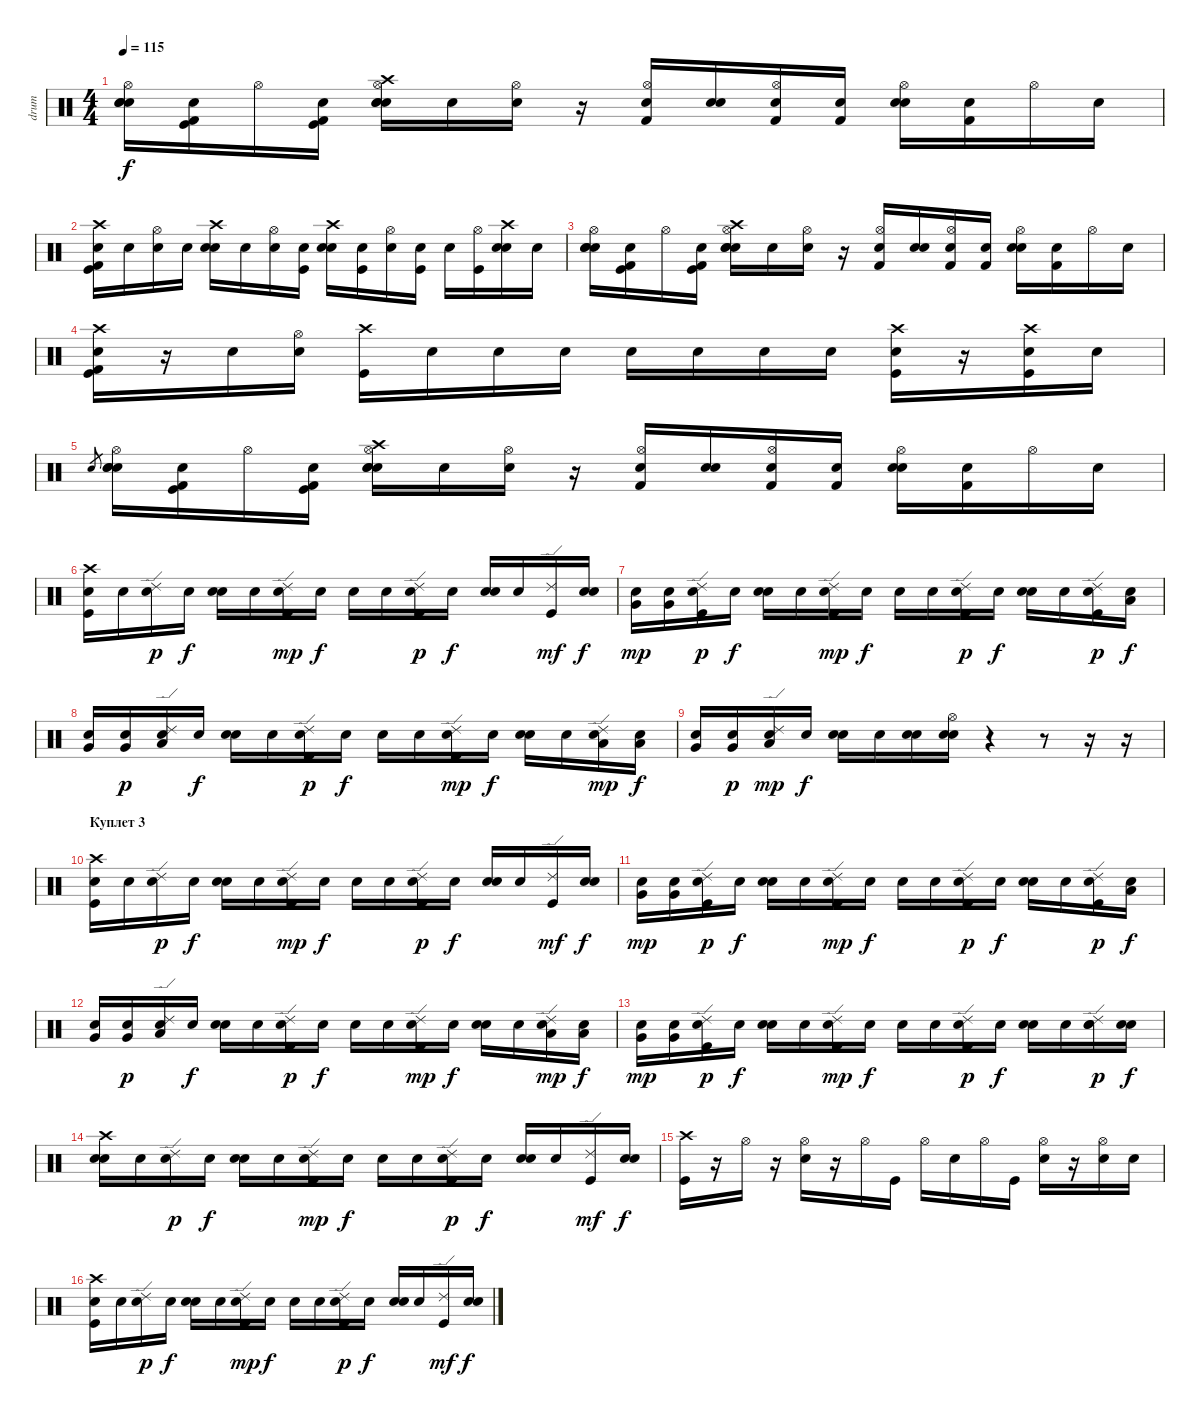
\track ("drum" "drum") {instrument percussion}
\staff {score}
\articulation defaults
\ts (4 4)
\tempo 115
\clef neutral
\ks c
("Snare (hit)"{x} "Hi-Hat (open)" "Snare (hit) 2" "Electric Snare (hit)").16{dy f} ("Snare (hit)"{x} "Kick (hit) 2" "Kick (hit)").16 "Hi-Hat (open)".16 ("Snare (hit)"{x} "Kick (hit) 2" "Kick (hit)").16 ("Snare (hit)"{x} "Hi-Hat (open)" "Snare (hit) 2" "Electric Snare (hit)" "Crash high (hit)").16 "Snare (hit)"{x}.16 ("Snare (hit)"{x} "Hi-Hat (open)").16 r.16 ("Snare (hit)"{x} "Hi-Hat (open)" "Kick (hit) 2").16 ("Snare (hit)"{x} "Snare (hit) 2").16 ("Snare (hit)"{x} "Hi-Hat (open)" "Kick (hit) 2").16 ("Snare (hit)"{x} "Kick (hit) 2").16 ("Snare (hit)"{x} "Hi-Hat (open)" "Snare (hit) 2").16 ("Snare (hit)"{x} "Kick (hit) 2").16 "Hi-Hat (open)".16 "Snare (hit)"{x}.16 |
("Snare (hit)"{x} "Kick (hit)" "Kick (hit) 2" "Crash high (hit)").16 "Snare (hit)"{x}.16 ("Snare (hit)"{x} "Hi-Hat (open)").16 "Snare (hit)"{x}.16 ("Snare (hit)"{x} "Electric Snare (hit)" "Crash high (hit)").16 "Snare (hit)"{x}.16 ("Snare (hit)"{x} "Hi-Hat (open)").16 ("Snare (hit)"{x} "Kick (hit)").16 ("Snare (hit)"{x} "Crash high (hit)" "Electric Snare (hit)").16 ("Snare (hit)"{x} "Kick (hit)").16 ("Snare (hit)"{x} "Hi-Hat (open)").16 ("Snare (hit)"{x} "Kick (hit)").16 "Snare (hit)"{x}.16 ("Hi-Hat (open)" "Kick (hit)").16 ("Snare (hit)"{x} "Crash high (hit)" "Electric Snare (hit)").16 "Snare (hit)"{x}.16 |
("Snare (hit)"{x} "Hi-Hat (open)" "Snare (hit) 2" "Electric Snare (hit)").16 ("Snare (hit)"{x} "Kick (hit) 2" "Kick (hit)").16 "Hi-Hat (open)".16 ("Snare (hit)"{x} "Kick (hit) 2" "Kick (hit)").16 ("Snare (hit)"{x} "Hi-Hat (open)" "Snare (hit) 2" "Electric Snare (hit)" "Crash high (hit)").16 "Snare (hit)"{x}.16 ("Snare (hit)"{x} "Hi-Hat (open)").16 r.16 ("Snare (hit)"{x} "Hi-Hat (open)" "Kick (hit) 2").16 ("Snare (hit)"{x} "Snare (hit) 2").16 ("Snare (hit)"{x} "Hi-Hat (open)" "Kick (hit) 2").16 ("Snare (hit)"{x} "Kick (hit) 2").16 ("Snare (hit)"{x} "Hi-Hat (open)" "Snare (hit) 2").16 ("Snare (hit)"{x} "Kick (hit) 2").16 "Hi-Hat (open)".16 "Snare (hit)"{x}.16 |
("Snare (hit)"{x} "Kick (hit)" "Kick (hit) 2" "Crash high (hit)").16 r.16 "Snare (hit)"{x}.16 ("Hi-Hat (open)" "Electric Snare (hit)").16 ("Kick (hit)" "Crash high (hit)").16 "Snare (hit)"{x}.16 "Electric Snare (hit)".16 "Electric Snare (hit)".16 "Electric Snare (hit)".16 "Electric Snare (hit)".16 "Electric Snare (hit)".16 "Electric Snare (hit)".16 ("Snare (hit)"{x} "Crash high (hit)" "Kick (hit)").16 r.16 ("Snare (hit)"{x} "Crash high (hit)" "Kick (hit)").16 "Snare (hit)"{x}.16 |
"Electric Snare (hit)".8{gr} ("Snare (hit)"{x} "Hi-Hat (open)" "Snare (hit) 2" "Electric Snare (hit)").16 ("Snare (hit)"{x} "Kick (hit) 2" "Kick (hit)").16 "Hi-Hat (open)".16 ("Snare (hit)"{x} "Kick (hit) 2" "Kick (hit)").16 ("Snare (hit)"{x} "Hi-Hat (open)" "Snare (hit) 2" "Electric Snare (hit)" "Crash high (hit)").16 "Snare (hit)"{x}.16 ("Snare (hit)"{x} "Hi-Hat (open)").16 r.16 ("Snare (hit)"{x} "Hi-Hat (open)" "Kick (hit) 2").16 ("Snare (hit)"{x} "Snare (hit) 2").16 ("Snare (hit)"{x} "Hi-Hat (open)" "Kick (hit) 2").16 ("Snare (hit)"{x} "Kick (hit) 2").16 ("Snare (hit)"{x} "Hi-Hat (open)" "Snare (hit) 2").16 ("Snare (hit)"{x} "Kick (hit) 2").16 "Hi-Hat (open)".16 "Snare (hit)"{x}.16 |
("Snare (hit)"{x} "Crash high (hit)" "Kick (hit)").16 "Snare (hit)"{x}.16 ("Snare (hit)"{x} "Ride (edge) 2").16{dy p} "Snare (hit)"{x}.16{dy f} ("Snare (hit)"{x} "Snare (hit) 2").16 "Snare (hit)"{x}.16 ("Snare (hit)"{x} "Ride (edge) 2" "Kick (hit)").16{dy mp} "Snare (hit)"{x}.16{dy f} "Snare (hit)"{x}.16 "Snare (hit)"{x}.16 ("Snare (hit)"{x} "Ride (edge) 2" "Kick (hit)").16{dy p} "Snare (hit)"{x}.16{dy f} ("Snare (hit)"{x} "Snare (hit) 2").16 "Snare (hit)"{x}.16 ("Ride (edge) 2" "Kick (hit)").16{dy mf} ("Snare (hit)"{x} "Snare (hit) 2").16{dy f} |
("Snare (hit)"{x} "Very Low Tom (hit)").16{dy mp} ("Snare (hit)"{x} "Very Low Tom (hit)").16 ("Snare (hit)"{x} "Ride (edge) 2" "Kick (hit)").16{dy p} "Snare (hit)"{x}.16{dy f} ("Snare (hit)"{x} "Snare (hit) 2").16 "Snare (hit)"{x}.16 ("Snare (hit)"{x} "Ride (edge) 2" "Kick (hit)").16{dy mp} "Snare (hit)"{x}.16{dy f} "Snare (hit)"{x}.16 "Snare (hit)"{x}.16 ("Snare (hit)"{x} "Ride (edge) 2" "Kick (hit)").16{dy p} "Snare (hit)"{x}.16{dy f} ("Snare (hit)"{x} "Snare (hit) 2").16 "Snare (hit)"{x}.16 ("Snare (hit)"{x} "Ride (edge) 2" "Kick (hit)").16{dy p} ("Snare (hit)"{x} "Low Tom (hit)").16{dy f} |
("Snare (hit)"{x} "Very Low Tom (hit)").16 ("Snare (hit)"{x} "Very Low Tom (hit)").16{dy p} ("Snare (hit)"{x} "Ride (edge) 2" "Low Floor Tom (hit)").16 "Snare (hit)"{x}.16{dy f} ("Snare (hit)"{x} "Snare (hit) 2").16 "Snare (hit)"{x}.16 ("Snare (hit)"{x} "Ride (edge) 2" "Kick (hit)").16{dy p} "Snare (hit)"{x}.16{dy f} "Snare (hit)"{x}.16 "Snare (hit)"{x}.16 ("Snare (hit)"{x} "Ride (edge) 2" "Kick (hit)").16{dy mp} "Snare (hit)"{x}.16{dy f} ("Snare (hit)"{x} "Snare (hit) 2").16 "Snare (hit)"{x}.16 ("Snare (hit)"{x} "Ride (edge) 2" "Low Tom (hit)").16{dy mp} ("Snare (hit)"{x} "Low Tom (hit)").16{dy f} |
("Snare (hit)"{x} "Very Low Tom (hit)").16 ("Snare (hit)"{x} "Very Low Tom (hit)").16{dy p} ("Snare (hit)"{x} "Ride (edge) 2" "Low Floor Tom (hit)").16{dy mp} "Snare (hit)"{x}.16{dy f} ("Snare (hit)"{x} "Snare (hit) 2").16 "Snare (hit)"{x}.16 ("Snare (hit)"{x} "Snare (hit) 2").16 ("Snare (hit)"{x} "Hi-Hat (open)" "Snare (hit) 2").16 r.4 r.8 r.16 r.16 |
\section ("" "Куплет 3")
("Snare (hit)"{x} "Crash high (hit)" "Kick (hit)").16 "Snare (hit)"{x}.16 ("Snare (hit)"{x} "Ride (edge) 2").16{dy p} "Snare (hit)"{x}.16{dy f} ("Snare (hit)"{x} "Snare (hit) 2").16 "Snare (hit)"{x}.16 ("Snare (hit)"{x} "Ride (edge) 2" "Kick (hit)").16{dy mp} "Snare (hit)"{x}.16{dy f} "Snare (hit)"{x}.16 "Snare (hit)"{x}.16 ("Snare (hit)"{x} "Ride (edge) 2" "Kick (hit)").16{dy p} "Snare (hit)"{x}.16{dy f} ("Snare (hit)"{x} "Snare (hit) 2").16 "Snare (hit)"{x}.16 ("Ride (edge) 2" "Kick (hit)").16{dy mf} ("Snare (hit)"{x} "Snare (hit) 2").16{dy f} |
("Snare (hit)"{x} "Very Low Tom (hit)").16{dy mp} ("Snare (hit)"{x} "Very Low Tom (hit)").16 ("Snare (hit)"{x} "Ride (edge) 2" "Kick (hit)").16{dy p} "Snare (hit)"{x}.16{dy f} ("Snare (hit)"{x} "Snare (hit) 2").16 "Snare (hit)"{x}.16 ("Snare (hit)"{x} "Ride (edge) 2" "Kick (hit)").16{dy mp} "Snare (hit)"{x}.16{dy f} "Snare (hit)"{x}.16 "Snare (hit)"{x}.16 ("Snare (hit)"{x} "Ride (edge) 2" "Kick (hit)").16{dy p} "Snare (hit)"{x}.16{dy f} ("Snare (hit)"{x} "Snare (hit) 2").16 "Snare (hit)"{x}.16 ("Snare (hit)"{x} "Ride (edge) 2" "Kick (hit)").16{dy p} ("Snare (hit)"{x} "Low Tom (hit)").16{dy f} |
("Snare (hit)"{x} "Very Low Tom (hit)").16 ("Snare (hit)"{x} "Very Low Tom (hit)").16{dy p} ("Snare (hit)"{x} "Ride (edge) 2" "Low Floor Tom (hit)").16 "Snare (hit)"{x}.16{dy f} ("Snare (hit)"{x} "Snare (hit) 2").16 "Snare (hit)"{x}.16 ("Snare (hit)"{x} "Ride (edge) 2" "Kick (hit)").16{dy p} "Snare (hit)"{x}.16{dy f} "Snare (hit)"{x}.16 "Snare (hit)"{x}.16 ("Snare (hit)"{x} "Ride (edge) 2" "Kick (hit)").16{dy mp} "Snare (hit)"{x}.16{dy f} ("Snare (hit)"{x} "Snare (hit) 2").16 "Snare (hit)"{x}.16 ("Snare (hit)"{x} "Ride (edge) 2" "Low Tom (hit)").16{dy mp} ("Snare (hit)"{x} "Low Tom (hit)").16{dy f} |
("Snare (hit)"{x} "Very Low Tom (hit)").16{dy mp} ("Snare (hit)"{x} "Very Low Tom (hit)").16 ("Snare (hit)"{x} "Ride (edge) 2" "Kick (hit)").16{dy p} "Snare (hit)"{x}.16{dy f} ("Snare (hit)"{x} "Snare (hit) 2").16 "Snare (hit)"{x}.16 ("Snare (hit)"{x} "Ride (edge) 2" "Kick (hit)").16{dy mp} "Snare (hit)"{x}.16{dy f} "Snare (hit)"{x}.16 "Snare (hit)"{x}.16 ("Snare (hit)"{x} "Ride (edge) 2" "Kick (hit)").16{dy p} "Snare (hit)"{x}.16{dy f} ("Snare (hit)"{x} "Snare (hit) 2").16 "Snare (hit)"{x}.16 ("Snare (hit)"{x} "Ride (edge) 2" "Snare (hit) 2").16{dy p} ("Snare (hit)"{x} "Snare (hit) 2").16{dy f} |
("Snare (hit)"{x} "Crash high (hit)" "Snare (hit) 2").16 "Snare (hit)"{x}.16 ("Snare (hit)"{x} "Ride (edge) 2").16{dy p} "Snare (hit)"{x}.16{dy f} ("Snare (hit)"{x} "Snare (hit) 2").16 "Snare (hit)"{x}.16 ("Snare (hit)"{x} "Ride (edge) 2" "Kick (hit)").16{dy mp} "Snare (hit)"{x}.16{dy f} "Snare (hit)"{x}.16 "Snare (hit)"{x}.16 ("Snare (hit)"{x} "Ride (edge) 2" "Kick (hit)").16{dy p} "Snare (hit)"{x}.16{dy f} ("Snare (hit)"{x} "Snare (hit) 2").16 "Snare (hit)"{x}.16 ("Ride (edge) 2" "Kick (hit)").16{dy mf} ("Snare (hit)"{x} "Snare (hit) 2").16{dy f} |
("Crash high (hit)" "Kick (hit)").16 r.16 "Hi-Hat (open)".16 r.16 ("Hi-Hat (open)" "Snare (hit) 2").16 r.16 "Hi-Hat (open)".16 "Kick (hit)".16 "Hi-Hat (open)".16 "Snare (hit) 2".16 "Hi-Hat (open)".16 "Kick (hit)".16 ("Hi-Hat (open)" "Snare (hit) 2").16 r.16 ("Hi-Hat (open)" "Snare (hit) 2").16 "Snare (hit) 2".16 |
("Snare (hit)"{x} "Crash high (hit)" "Kick (hit)").16 "Snare (hit)"{x}.16 ("Snare (hit)"{x} "Ride (edge) 2").16{dy p} "Snare (hit)"{x}.16{dy f} ("Snare (hit)"{x} "Snare (hit) 2").16 "Snare (hit)"{x}.16 ("Snare (hit)"{x} "Ride (edge) 2" "Kick (hit)").16{dy mp} "Snare (hit)"{x}.16{dy f} "Snare (hit)"{x}.16 "Snare (hit)"{x}.16 ("Snare (hit)"{x} "Ride (edge) 2" "Kick (hit)").16{dy p} "Snare (hit)"{x}.16{dy f} ("Snare (hit)"{x} "Snare (hit) 2").16 "Snare (hit)"{x}.16 ("Ride (edge) 2" "Kick (hit)").16{dy mf} ("Snare (hit)"{x} "Snare (hit) 2").16{dy f}
